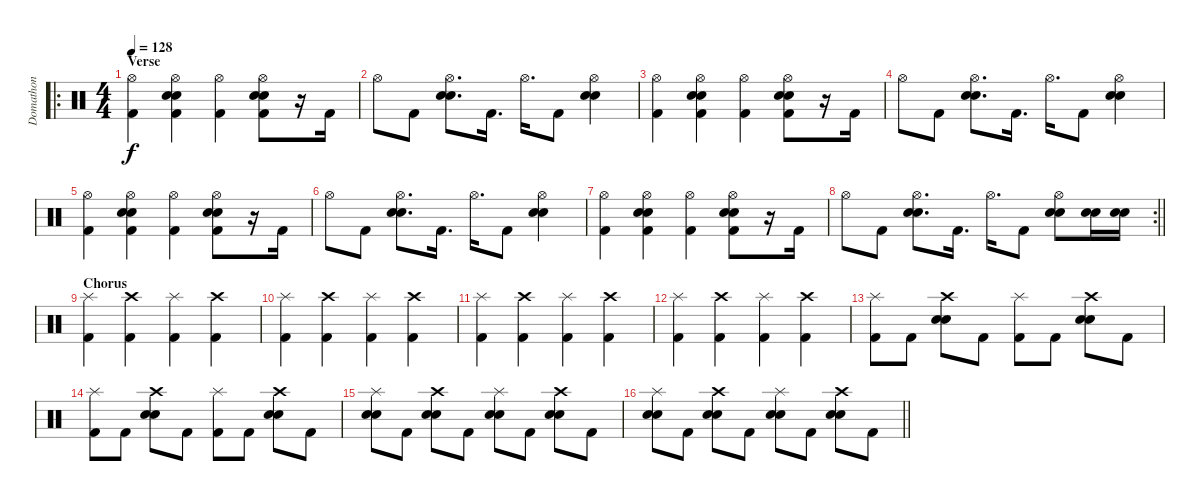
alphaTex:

\track ("Domathon" "Domathon") {instrument percussion}
\staff {score}
\articulation defaults
\ro
\ts (4 4)
\section ("" "Verse")
\tempo 128
\clef neutral
\ks c
("Hi-Hat (open)" "Kick (hit) 2").4{dy f} ("Hi-Hat (open)" "Snare (hit) 2" "Electric Snare (hit)" "Kick (hit) 2").4 ("Hi-Hat (open)" "Kick (hit) 2").4 ("Hi-Hat (open)" "Snare (hit) 2" "Electric Snare (hit)" "Kick (hit) 2").8 r.16 "Kick (hit) 2".16 |
"Hi-Hat (open)".8 "Kick (hit) 2".8 ("Hi-Hat (open)" "Snare (hit) 2" "Electric Snare (hit)").8{d} "Kick (hit) 2".16{d} "Hi-Hat (open)".16{d} "Kick (hit) 2".8 ("Hi-Hat (open)" "Snare (hit) 2" "Electric Snare (hit)").4 |
("Hi-Hat (open)" "Kick (hit) 2").4 ("Hi-Hat (open)" "Snare (hit) 2" "Electric Snare (hit)" "Kick (hit) 2").4 ("Hi-Hat (open)" "Kick (hit) 2").4 ("Hi-Hat (open)" "Snare (hit) 2" "Electric Snare (hit)" "Kick (hit) 2").8 r.16 "Kick (hit) 2".16 |
"Hi-Hat (open)".8 "Kick (hit) 2".8 ("Hi-Hat (open)" "Snare (hit) 2" "Electric Snare (hit)").8{d} "Kick (hit) 2".16{d} "Hi-Hat (open)".16{d} "Kick (hit) 2".8 ("Hi-Hat (open)" "Snare (hit) 2" "Electric Snare (hit)").4 |
("Hi-Hat (open)" "Kick (hit) 2").4 ("Hi-Hat (open)" "Snare (hit) 2" "Electric Snare (hit)" "Kick (hit) 2").4 ("Hi-Hat (open)" "Kick (hit) 2").4 ("Hi-Hat (open)" "Snare (hit) 2" "Electric Snare (hit)" "Kick (hit) 2").8 r.16 "Kick (hit) 2".16 |
"Hi-Hat (open)".8 "Kick (hit) 2".8 ("Hi-Hat (open)" "Snare (hit) 2" "Electric Snare (hit)").8{d} "Kick (hit) 2".16{d} "Hi-Hat (open)".16{d} "Kick (hit) 2".8 ("Hi-Hat (open)" "Snare (hit) 2" "Electric Snare (hit)").4 |
("Hi-Hat (open)" "Kick (hit) 2").4 ("Hi-Hat (open)" "Snare (hit) 2" "Electric Snare (hit)" "Kick (hit) 2").4 ("Hi-Hat (open)" "Kick (hit) 2").4 ("Hi-Hat (open)" "Snare (hit) 2" "Electric Snare (hit)" "Kick (hit) 2").8 r.16 "Kick (hit) 2".16 |
\rc 2
\barLineRight lightlight "Hi-Hat (open)".8 "Kick (hit) 2".8
("Hi-Hat (open)" "Snare (hit) 2" "Electric Snare (hit)").8{d} "Kick (hit) 2".16{d} "Hi-Hat (open)".16{d} "Kick (hit) 2".8 ("Hi-Hat (open)" "Snare (hit) 2" "Electric Snare (hit)").8 ("Snare (hit) 2" "Electric Snare (hit)").16 ("Snare (hit) 2" "Electric Snare (hit)").16 |
\section ("" "Chorus")
("Splash (hit)" "Kick (hit) 2").4 ("Crash high (hit)" "Kick (hit) 2").4 ("Splash (hit)" "Kick (hit) 2").4 ("Crash high (hit)" "Kick (hit) 2").4 |
("Splash (hit)" "Kick (hit) 2").4 ("Crash high (hit)" "Kick (hit) 2").4 ("Splash (hit)" "Kick (hit) 2").4 ("Crash high (hit)" "Kick (hit) 2").4 |
("Splash (hit)" "Kick (hit) 2").4 ("Crash high (hit)" "Kick (hit) 2").4 ("Splash (hit)" "Kick (hit) 2").4 ("Crash high (hit)" "Kick (hit) 2").4 |
("Splash (hit)" "Kick (hit) 2").4 ("Crash high (hit)" "Kick (hit) 2").4 ("Splash (hit)" "Kick (hit) 2").4 ("Crash high (hit)" "Kick (hit) 2").4 |
("Splash (hit)" "Kick (hit) 2").8 "Kick (hit) 2".8 ("Crash high (hit)" "Snare (hit) 2" "Electric Snare (hit)").8 "Kick (hit) 2".8 ("Splash (hit)" "Kick (hit) 2").8 "Kick (hit) 2".8 ("Crash high (hit)" "Snare (hit) 2" "Electric Snare (hit)").8 "Kick (hit) 2".8 |
("Splash (hit)" "Kick (hit) 2").8 "Kick (hit) 2".8 ("Crash high (hit)" "Snare (hit) 2" "Electric Snare (hit)").8 "Kick (hit) 2".8 ("Splash (hit)" "Kick (hit) 2").8 "Kick (hit) 2".8 ("Crash high (hit)" "Snare (hit) 2" "Electric Snare (hit)").8 "Kick (hit) 2".8 |
("Splash (hit)" "Snare (hit) 2" "Electric Snare (hit)").8 "Kick (hit) 2".8 ("Crash high (hit)" "Snare (hit) 2" "Electric Snare (hit)").8 "Kick (hit) 2".8 ("Splash (hit)" "Snare (hit) 2" "Electric Snare (hit)").8 "Kick (hit) 2".8 ("Crash high (hit)" "Snare (hit) 2" "Electric Snare (hit)").8 "Kick (hit) 2".8 |
\barLineRight lightlight
("Splash (hit)" "Snare (hit) 2" "Electric Snare (hit)").8 "Kick (hit) 2".8 ("Crash high (hit)" "Snare (hit) 2" "Electric Snare (hit)").8 "Kick (hit) 2".8 ("Splash (hit)" "Snare (hit) 2" "Electric Snare (hit)").8 "Kick (hit) 2".8 ("Crash high (hit)" "Snare (hit) 2" "Electric Snare (hit)").8 "Kick (hit) 2".8
